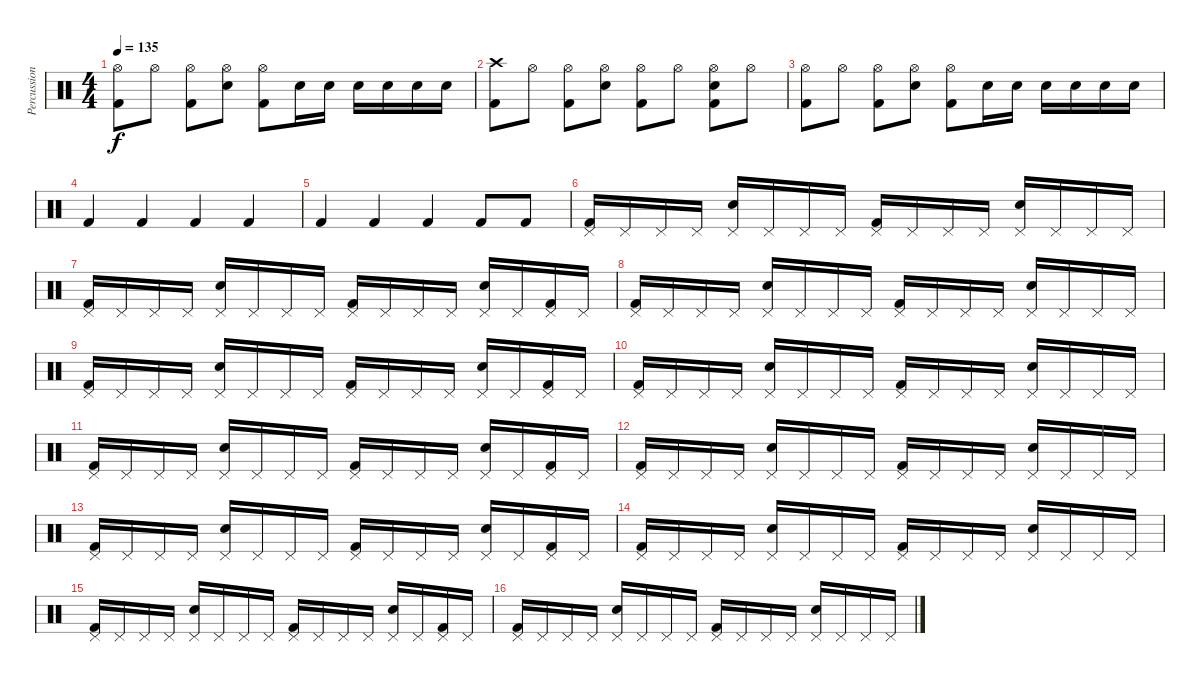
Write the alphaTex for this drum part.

\track ("Percussion" "Percussion") {instrument percussion}
\staff {score}
\articulation defaults
\ts (4 4)
\tempo 135
\clef neutral
\ks c
("Hi-Hat (open)" "Kick (hit) 2").8{dy f} "Hi-Hat (open)".8 ("Hi-Hat (open)" "Kick (hit) 2").8 ("Electric Snare (hit)" "Hi-Hat (open)").8 ("Hi-Hat (open)" "Kick (hit) 2").8 "Electric Snare (hit)".16 "Electric Snare (hit)".16 "Electric Snare (hit)".16 "Electric Snare (hit)".16 "Electric Snare (hit)".16 "Electric Snare (hit)".16 |
("Crash high (hit)" "Kick (hit) 2").8 "Hi-Hat (open)".8 ("Hi-Hat (open)" "Kick (hit) 2").8 ("Electric Snare (hit)" "Hi-Hat (open)").8 ("Hi-Hat (open)" "Kick (hit) 2").8 "Hi-Hat (open)".8 ("Electric Snare (hit)" "Hi-Hat (open)" "Kick (hit) 2").8 "Hi-Hat (open)".8 |
("Hi-Hat (open)" "Kick (hit) 2").8 "Hi-Hat (open)".8 ("Hi-Hat (open)" "Kick (hit) 2").8 ("Electric Snare (hit)" "Hi-Hat (open)").8 ("Hi-Hat (open)" "Kick (hit) 2").8 "Electric Snare (hit)".16 "Electric Snare (hit)".16 "Electric Snare (hit)".16 "Electric Snare (hit)".16 "Electric Snare (hit)".16 "Electric Snare (hit)".16 |
"Kick (hit) 2".4 "Kick (hit) 2".4 "Kick (hit) 2".4 "Kick (hit) 2".4 |
"Kick (hit) 2".4 "Kick (hit) 2".4 "Kick (hit) 2".4 "Kick (hit) 2".8 "Kick (hit) 2".8 |
("Kick (hit) 2" "Pedal Hi-Hat (hit)").16 "Pedal Hi-Hat (hit)".16 "Pedal Hi-Hat (hit)".16 "Pedal Hi-Hat (hit)".16 ("Electric Snare (hit)" "Pedal Hi-Hat (hit)").16 "Pedal Hi-Hat (hit)".16 "Pedal Hi-Hat (hit)".16 "Pedal Hi-Hat (hit)".16 ("Kick (hit) 2" "Pedal Hi-Hat (hit)").16 "Pedal Hi-Hat (hit)".16 "Pedal Hi-Hat (hit)".16 "Pedal Hi-Hat (hit)".16 ("Electric Snare (hit)" "Pedal Hi-Hat (hit)").16 "Pedal Hi-Hat (hit)".16 "Pedal Hi-Hat (hit)".16 "Pedal Hi-Hat (hit)".16 |
("Kick (hit) 2" "Pedal Hi-Hat (hit)").16 "Pedal Hi-Hat (hit)".16 "Pedal Hi-Hat (hit)".16 "Pedal Hi-Hat (hit)".16 ("Electric Snare (hit)" "Pedal Hi-Hat (hit)").16 "Pedal Hi-Hat (hit)".16 "Pedal Hi-Hat (hit)".16 "Pedal Hi-Hat (hit)".16 ("Kick (hit) 2" "Pedal Hi-Hat (hit)").16 "Pedal Hi-Hat (hit)".16 "Pedal Hi-Hat (hit)".16 "Pedal Hi-Hat (hit)".16 ("Electric Snare (hit)" "Pedal Hi-Hat (hit)").16 "Pedal Hi-Hat (hit)".16 ("Kick (hit) 2" "Pedal Hi-Hat (hit)").16 "Pedal Hi-Hat (hit)".16 |
("Kick (hit) 2" "Pedal Hi-Hat (hit)").16 "Pedal Hi-Hat (hit)".16 "Pedal Hi-Hat (hit)".16 "Pedal Hi-Hat (hit)".16 ("Electric Snare (hit)" "Pedal Hi-Hat (hit)").16 "Pedal Hi-Hat (hit)".16 "Pedal Hi-Hat (hit)".16 "Pedal Hi-Hat (hit)".16 ("Kick (hit) 2" "Pedal Hi-Hat (hit)").16 "Pedal Hi-Hat (hit)".16 "Pedal Hi-Hat (hit)".16 "Pedal Hi-Hat (hit)".16 ("Electric Snare (hit)" "Pedal Hi-Hat (hit)").16 "Pedal Hi-Hat (hit)".16 "Pedal Hi-Hat (hit)".16 "Pedal Hi-Hat (hit)".16 |
("Kick (hit) 2" "Pedal Hi-Hat (hit)").16 "Pedal Hi-Hat (hit)".16 "Pedal Hi-Hat (hit)".16 "Pedal Hi-Hat (hit)".16 ("Electric Snare (hit)" "Pedal Hi-Hat (hit)").16 "Pedal Hi-Hat (hit)".16 "Pedal Hi-Hat (hit)".16 "Pedal Hi-Hat (hit)".16 ("Kick (hit) 2" "Pedal Hi-Hat (hit)").16 "Pedal Hi-Hat (hit)".16 "Pedal Hi-Hat (hit)".16 "Pedal Hi-Hat (hit)".16 ("Electric Snare (hit)" "Pedal Hi-Hat (hit)").16 "Pedal Hi-Hat (hit)".16 ("Kick (hit) 2" "Pedal Hi-Hat (hit)").16 "Pedal Hi-Hat (hit)".16 |
("Kick (hit) 2" "Pedal Hi-Hat (hit)").16 "Pedal Hi-Hat (hit)".16 "Pedal Hi-Hat (hit)".16 "Pedal Hi-Hat (hit)".16 ("Electric Snare (hit)" "Pedal Hi-Hat (hit)").16 "Pedal Hi-Hat (hit)".16 "Pedal Hi-Hat (hit)".16 "Pedal Hi-Hat (hit)".16 ("Kick (hit) 2" "Pedal Hi-Hat (hit)").16 "Pedal Hi-Hat (hit)".16 "Pedal Hi-Hat (hit)".16 "Pedal Hi-Hat (hit)".16 ("Electric Snare (hit)" "Pedal Hi-Hat (hit)").16 "Pedal Hi-Hat (hit)".16 "Pedal Hi-Hat (hit)".16 "Pedal Hi-Hat (hit)".16 |
("Kick (hit) 2" "Pedal Hi-Hat (hit)").16 "Pedal Hi-Hat (hit)".16 "Pedal Hi-Hat (hit)".16 "Pedal Hi-Hat (hit)".16 ("Electric Snare (hit)" "Pedal Hi-Hat (hit)").16 "Pedal Hi-Hat (hit)".16 "Pedal Hi-Hat (hit)".16 "Pedal Hi-Hat (hit)".16 ("Kick (hit) 2" "Pedal Hi-Hat (hit)").16 "Pedal Hi-Hat (hit)".16 "Pedal Hi-Hat (hit)".16 "Pedal Hi-Hat (hit)".16 ("Electric Snare (hit)" "Pedal Hi-Hat (hit)").16 "Pedal Hi-Hat (hit)".16 ("Kick (hit) 2" "Pedal Hi-Hat (hit)").16 "Pedal Hi-Hat (hit)".16 |
("Kick (hit) 2" "Pedal Hi-Hat (hit)").16 "Pedal Hi-Hat (hit)".16 "Pedal Hi-Hat (hit)".16 "Pedal Hi-Hat (hit)".16 ("Electric Snare (hit)" "Pedal Hi-Hat (hit)").16 "Pedal Hi-Hat (hit)".16 "Pedal Hi-Hat (hit)".16 "Pedal Hi-Hat (hit)".16 ("Kick (hit) 2" "Pedal Hi-Hat (hit)").16 "Pedal Hi-Hat (hit)".16 "Pedal Hi-Hat (hit)".16 "Pedal Hi-Hat (hit)".16 ("Electric Snare (hit)" "Pedal Hi-Hat (hit)").16 "Pedal Hi-Hat (hit)".16 "Pedal Hi-Hat (hit)".16 "Pedal Hi-Hat (hit)".16 |
("Kick (hit) 2" "Pedal Hi-Hat (hit)").16 "Pedal Hi-Hat (hit)".16 "Pedal Hi-Hat (hit)".16 "Pedal Hi-Hat (hit)".16 ("Electric Snare (hit)" "Pedal Hi-Hat (hit)").16 "Pedal Hi-Hat (hit)".16 "Pedal Hi-Hat (hit)".16 "Pedal Hi-Hat (hit)".16 ("Kick (hit) 2" "Pedal Hi-Hat (hit)").16 "Pedal Hi-Hat (hit)".16 "Pedal Hi-Hat (hit)".16 "Pedal Hi-Hat (hit)".16 ("Electric Snare (hit)" "Pedal Hi-Hat (hit)").16 "Pedal Hi-Hat (hit)".16 ("Kick (hit) 2" "Pedal Hi-Hat (hit)").16 "Pedal Hi-Hat (hit)".16 |
("Kick (hit) 2" "Pedal Hi-Hat (hit)").16 "Pedal Hi-Hat (hit)".16 "Pedal Hi-Hat (hit)".16 "Pedal Hi-Hat (hit)".16 ("Electric Snare (hit)" "Pedal Hi-Hat (hit)").16 "Pedal Hi-Hat (hit)".16 "Pedal Hi-Hat (hit)".16 "Pedal Hi-Hat (hit)".16 ("Kick (hit) 2" "Pedal Hi-Hat (hit)").16 "Pedal Hi-Hat (hit)".16 "Pedal Hi-Hat (hit)".16 "Pedal Hi-Hat (hit)".16 ("Electric Snare (hit)" "Pedal Hi-Hat (hit)").16 "Pedal Hi-Hat (hit)".16 "Pedal Hi-Hat (hit)".16 "Pedal Hi-Hat (hit)".16 |
("Kick (hit) 2" "Pedal Hi-Hat (hit)").16 "Pedal Hi-Hat (hit)".16 "Pedal Hi-Hat (hit)".16 "Pedal Hi-Hat (hit)".16 ("Electric Snare (hit)" "Pedal Hi-Hat (hit)").16 "Pedal Hi-Hat (hit)".16 "Pedal Hi-Hat (hit)".16 "Pedal Hi-Hat (hit)".16 ("Kick (hit) 2" "Pedal Hi-Hat (hit)").16 "Pedal Hi-Hat (hit)".16 "Pedal Hi-Hat (hit)".16 "Pedal Hi-Hat (hit)".16 ("Electric Snare (hit)" "Pedal Hi-Hat (hit)").16 "Pedal Hi-Hat (hit)".16 ("Kick (hit) 2" "Pedal Hi-Hat (hit)").16 "Pedal Hi-Hat (hit)".16 |
("Kick (hit) 2" "Pedal Hi-Hat (hit)").16 "Pedal Hi-Hat (hit)".16 "Pedal Hi-Hat (hit)".16 "Pedal Hi-Hat (hit)".16 ("Electric Snare (hit)" "Pedal Hi-Hat (hit)").16 "Pedal Hi-Hat (hit)".16 "Pedal Hi-Hat (hit)".16 "Pedal Hi-Hat (hit)".16 ("Kick (hit) 2" "Pedal Hi-Hat (hit)").16 "Pedal Hi-Hat (hit)".16 "Pedal Hi-Hat (hit)".16 "Pedal Hi-Hat (hit)".16 ("Electric Snare (hit)" "Pedal Hi-Hat (hit)").16 "Pedal Hi-Hat (hit)".16 "Pedal Hi-Hat (hit)".16 "Pedal Hi-Hat (hit)".16
